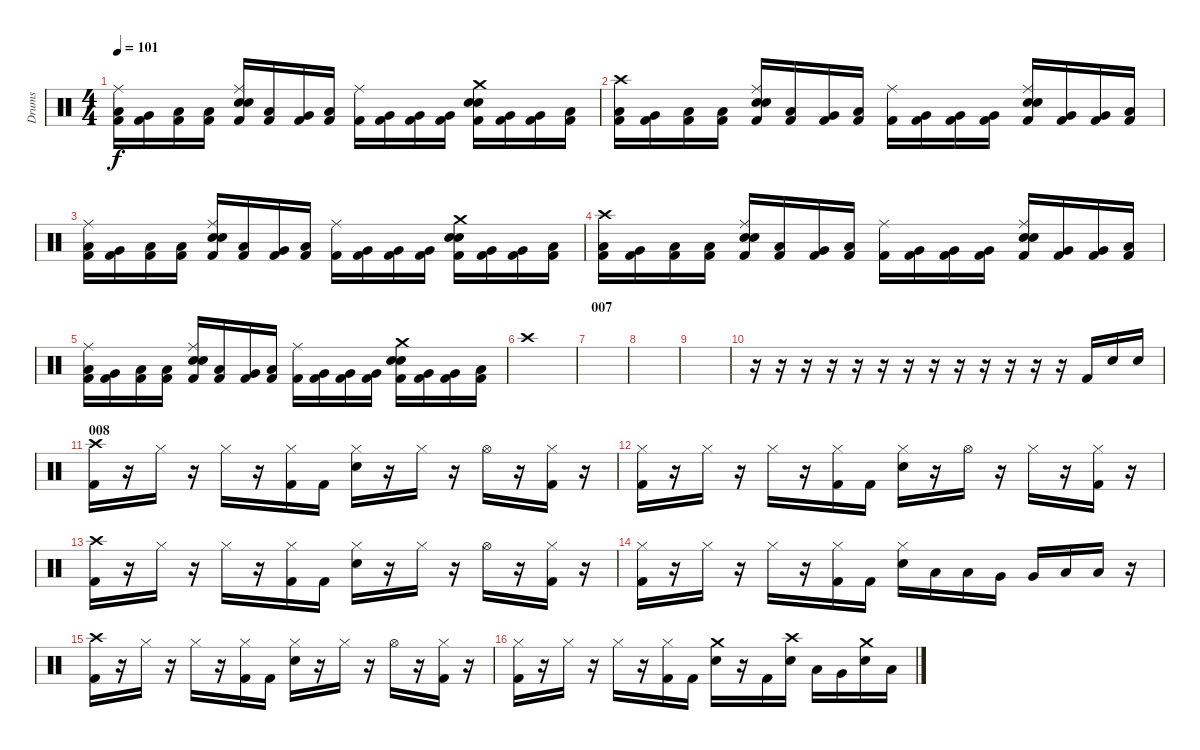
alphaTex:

\track ("Drums" "Drums") {instrument percussion}
\staff {score}
\articulation defaults
\ts (4 4)
\tempo 101
\clef neutral
\ks c
("Kick (hit) 2" "Low Floor Tom (hit)" "Ride (middle)").16{dy f} ("Kick (hit) 2" "Very Low Tom (hit)").16 ("Kick (hit) 2" "Low Tom (hit)").16 ("Kick (hit) 2" "Low Floor Tom (hit)").16 ("Kick (hit) 2" "Electric Snare (hit)" "Snare (hit) 2" "Ride (middle)").16 ("Kick (hit) 2" "Low Tom (hit)").16 ("Kick (hit) 2" "Very Low Tom (hit)").16 ("Kick (hit) 2" "Low Floor Tom (hit)").16 ("Kick (hit) 2" "Ride (middle)").16 ("Kick (hit) 2" "Very Low Tom (hit)").16 ("Kick (hit) 2" "Very Low Tom (hit)").16 ("Kick (hit) 2" "Very Low Tom (hit)").16 ("Kick (hit) 2" "Electric Snare (hit)" "Snare (hit) 2" "Crash medium (hit)").16 ("Kick (hit) 2" "Very Low Tom (hit)").16 ("Kick (hit) 2" "Very Low Tom (hit)").16 ("Kick (hit) 2" "Low Floor Tom (hit)").16 |
("Kick (hit) 2" "Low Floor Tom (hit)" "Crash high (hit)").16 ("Kick (hit) 2" "Very Low Tom (hit)").16 ("Kick (hit) 2" "Low Tom (hit)").16 ("Kick (hit) 2" "Low Floor Tom (hit)").16 ("Kick (hit) 2" "Electric Snare (hit)" "Snare (hit) 2" "Ride (middle)").16 ("Kick (hit) 2" "Low Tom (hit)").16 ("Kick (hit) 2" "Very Low Tom (hit)").16 ("Kick (hit) 2" "Low Floor Tom (hit)").16 ("Kick (hit) 2" "Ride (middle)").16 ("Kick (hit) 2" "Very Low Tom (hit)").16 ("Kick (hit) 2" "Very Low Tom (hit)").16 ("Kick (hit) 2" "Very Low Tom (hit)").16 ("Kick (hit) 2" "Electric Snare (hit)" "Snare (hit) 2" "Ride (middle)").16 ("Kick (hit) 2" "Very Low Tom (hit)").16 ("Kick (hit) 2" "Very Low Tom (hit)").16 ("Kick (hit) 2" "Low Floor Tom (hit)").16 |
("Kick (hit) 2" "Low Floor Tom (hit)" "Ride (middle)").16 ("Kick (hit) 2" "Very Low Tom (hit)").16 ("Kick (hit) 2" "Low Tom (hit)").16 ("Kick (hit) 2" "Low Floor Tom (hit)").16 ("Kick (hit) 2" "Electric Snare (hit)" "Snare (hit) 2" "Ride (middle)").16 ("Kick (hit) 2" "Low Tom (hit)").16 ("Kick (hit) 2" "Very Low Tom (hit)").16 ("Kick (hit) 2" "Low Floor Tom (hit)").16 ("Kick (hit) 2" "Ride (middle)").16 ("Kick (hit) 2" "Very Low Tom (hit)").16 ("Kick (hit) 2" "Very Low Tom (hit)").16 ("Kick (hit) 2" "Very Low Tom (hit)").16 ("Kick (hit) 2" "Electric Snare (hit)" "Snare (hit) 2" "Crash medium (hit)").16 ("Kick (hit) 2" "Very Low Tom (hit)").16 ("Kick (hit) 2" "Very Low Tom (hit)").16 ("Kick (hit) 2" "Low Floor Tom (hit)").16 |
("Kick (hit) 2" "Low Floor Tom (hit)" "Crash high (hit)").16 ("Kick (hit) 2" "Very Low Tom (hit)").16 ("Kick (hit) 2" "Low Tom (hit)").16 ("Kick (hit) 2" "Low Floor Tom (hit)").16 ("Kick (hit) 2" "Electric Snare (hit)" "Snare (hit) 2" "Ride (middle)").16 ("Kick (hit) 2" "Low Tom (hit)").16 ("Kick (hit) 2" "Very Low Tom (hit)").16 ("Kick (hit) 2" "Low Floor Tom (hit)").16 ("Kick (hit) 2" "Ride (middle)").16 ("Kick (hit) 2" "Very Low Tom (hit)").16 ("Kick (hit) 2" "Very Low Tom (hit)").16 ("Kick (hit) 2" "Very Low Tom (hit)").16 ("Kick (hit) 2" "Electric Snare (hit)" "Snare (hit) 2" "Ride (middle)").16 ("Kick (hit) 2" "Very Low Tom (hit)").16 ("Kick (hit) 2" "Very Low Tom (hit)").16 ("Kick (hit) 2" "Low Floor Tom (hit)").16 |
("Kick (hit) 2" "Low Floor Tom (hit)" "Ride (middle)").16 ("Kick (hit) 2" "Very Low Tom (hit)").16 ("Kick (hit) 2" "Low Tom (hit)").16 ("Kick (hit) 2" "Low Floor Tom (hit)").16 ("Kick (hit) 2" "Electric Snare (hit)" "Snare (hit) 2" "Ride (middle)").16 ("Kick (hit) 2" "Low Tom (hit)").16 ("Kick (hit) 2" "Very Low Tom (hit)").16 ("Kick (hit) 2" "Low Floor Tom (hit)").16 ("Kick (hit) 2" "Ride (middle)").16 ("Kick (hit) 2" "Very Low Tom (hit)").16 ("Kick (hit) 2" "Very Low Tom (hit)").16 ("Kick (hit) 2" "Very Low Tom (hit)").16 ("Kick (hit) 2" "Electric Snare (hit)" "Snare (hit) 2" "Crash medium (hit)").16 ("Kick (hit) 2" "Very Low Tom (hit)").16 ("Kick (hit) 2" "Very Low Tom (hit)").16 ("Kick (hit) 2" "Low Floor Tom (hit)").16 |
"Crash high (hit)".1 |
\section ("" "007")
|
|
|
r.16 r.16 r.16 r.16 r.16 r.16 r.16 r.16 r.16 r.16 r.16 r.16 r.16 "Kick (hit) 2".16 "Electric Snare (hit)".16 "Electric Snare (hit)".16 |
\section ("" "008")
("Kick (hit) 2" "Crash high (hit)").16 r.16 "Hi-Hat (closed)".16 r.16 "Hi-Hat (closed)".16 r.16 ("Kick (hit) 2" "Hi-Hat (closed)").16 "Kick (hit) 2".16 ("Electric Snare (hit)" "Hi-Hat (closed)").16 r.16 "Hi-Hat (closed)".16 r.16 "Hi-Hat (open)".16 r.16 ("Kick (hit) 2" "Hi-Hat (closed)").16 r.16 |
("Kick (hit) 2" "Hi-Hat (closed)").16 r.16 "Hi-Hat (closed)".16 r.16 "Hi-Hat (closed)".16 r.16 ("Kick (hit) 2" "Hi-Hat (closed)").16 "Kick (hit) 2".16 ("Electric Snare (hit)" "Hi-Hat (closed)").16 r.16 "Hi-Hat (open)".16 r.16 "Hi-Hat (closed)".16 r.16 ("Kick (hit) 2" "Hi-Hat (closed)").16 r.16 |
("Kick (hit) 2" "Crash high (hit)").16 r.16 "Hi-Hat (closed)".16 r.16 "Hi-Hat (closed)".16 r.16 ("Kick (hit) 2" "Hi-Hat (closed)").16 "Kick (hit) 2".16 ("Electric Snare (hit)" "Hi-Hat (closed)").16 r.16 "Hi-Hat (closed)".16 r.16 "Hi-Hat (open)".16 r.16 ("Kick (hit) 2" "Hi-Hat (closed)").16 r.16 |
("Kick (hit) 2" "Hi-Hat (closed)").16 r.16 "Hi-Hat (closed)".16 r.16 "Hi-Hat (closed)".16 r.16 ("Kick (hit) 2" "Hi-Hat (closed)").16 "Kick (hit) 2".16 ("Electric Snare (hit)" "Hi-Hat (closed)").16 "Low Tom (hit)".16 "Low Tom (hit)".16 "Very Low Tom (hit)".16 "Very Low Tom (hit)".16 "Low Floor Tom (hit)".16 "Low Floor Tom (hit)".16 r.16 |
("Kick (hit) 2" "Crash high (hit)").16 r.16 "Hi-Hat (closed)".16 r.16 "Hi-Hat (closed)".16 r.16 ("Kick (hit) 2" "Hi-Hat (closed)").16 "Kick (hit) 2".16 ("Electric Snare (hit)" "Hi-Hat (closed)").16 r.16 "Hi-Hat (closed)".16 r.16 "Hi-Hat (open)".16 r.16 ("Kick (hit) 2" "Hi-Hat (closed)").16 r.16 |
("Kick (hit) 2" "Hi-Hat (closed)").16 r.16 "Hi-Hat (closed)".16 r.16 "Hi-Hat (closed)".16 r.16 ("Kick (hit) 2" "Hi-Hat (closed)").16 "Kick (hit) 2".16 ("Electric Snare (hit)" "Crash medium (hit)").16 r.16 "Kick (hit) 2".16 ("Electric Snare (hit)" "Crash high (hit)").16 "Low Floor Tom (hit)".16 "Very Low Tom (hit)".16 ("Electric Snare (hit)" "Crash medium (hit)").16 "Low Tom (hit)".16
